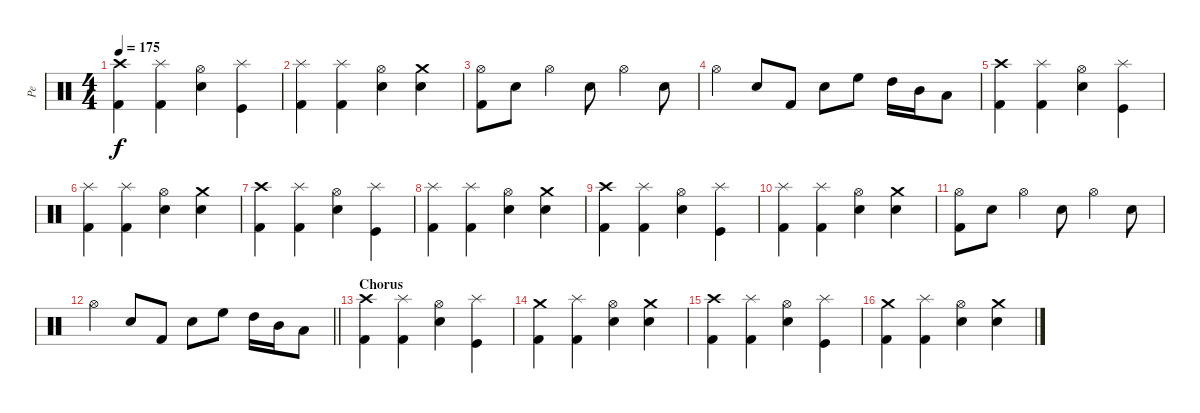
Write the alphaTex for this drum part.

\track ("Pe" "Pe") {instrument percussion}
\staff {score}
\articulation defaults
\ts (4 4)
\tempo 175
\clef neutral
\ks c
("Kick (hit) 2" "Crash high (hit)").4{dy f} ("Kick (hit) 2" "Splash (hit)").4 ("Electric Snare (hit)" "Hi-Hat (open)").4 ("Kick (hit)" "Splash (hit)").4 |
("Kick (hit) 2" "Splash (hit)").4 ("Kick (hit) 2" "Splash (hit)").4 ("Electric Snare (hit)" "Hi-Hat (open)").4 ("Electric Snare (hit)" "Crash medium (hit)").4 |
("Kick (hit) 2" "Hi-Hat (open)").8 "Electric Snare (hit)".8 "Hi-Hat (open)".4 "Electric Snare (hit)".8 "Hi-Hat (open)".4 "Electric Snare (hit)".8 |
"Hi-Hat (open)".4 "Electric Snare (hit)".8 "Kick (hit) 2".8 "Electric Snare (hit)".8 "High Floor Tom (hit)".8 "High Tom (hit)".16 "Mid Tom (hit)".16 "Low Tom (hit)".8 |
("Kick (hit) 2" "Crash high (hit)").4 ("Kick (hit) 2" "Splash (hit)").4 ("Electric Snare (hit)" "Hi-Hat (open)").4 ("Kick (hit)" "Splash (hit)").4 |
("Kick (hit) 2" "Splash (hit)").4 ("Kick (hit) 2" "Splash (hit)").4 ("Electric Snare (hit)" "Hi-Hat (open)").4 ("Electric Snare (hit)" "Crash medium (hit)").4 |
("Kick (hit) 2" "Crash high (hit)").4 ("Kick (hit) 2" "Splash (hit)").4 ("Electric Snare (hit)" "Hi-Hat (open)").4 ("Kick (hit)" "Splash (hit)").4 |
("Kick (hit) 2" "Splash (hit)").4 ("Kick (hit) 2" "Splash (hit)").4 ("Electric Snare (hit)" "Hi-Hat (open)").4 ("Electric Snare (hit)" "Crash medium (hit)").4 |
("Kick (hit) 2" "Crash high (hit)").4 ("Kick (hit) 2" "Splash (hit)").4 ("Electric Snare (hit)" "Hi-Hat (open)").4 ("Kick (hit)" "Splash (hit)").4 |
("Kick (hit) 2" "Splash (hit)").4 ("Kick (hit) 2" "Splash (hit)").4 ("Electric Snare (hit)" "Hi-Hat (open)").4 ("Electric Snare (hit)" "Crash medium (hit)").4 |
("Kick (hit) 2" "Hi-Hat (open)").8 "Electric Snare (hit)".8 "Hi-Hat (open)".4 "Electric Snare (hit)".8 "Hi-Hat (open)".4 "Electric Snare (hit)".8 |
\barLineRight lightlight "Hi-Hat (open)".4 "Electric Snare (hit)".8 "Kick (hit) 2".8 "Electric Snare (hit)".8 "High Floor Tom (hit)".8 "High Tom (hit)".16 "Mid Tom (hit)".16 "Low Tom (hit)".8
|
\section ("" "Chorus")
("Kick (hit) 2" "Crash high (hit)").4 ("Kick (hit) 2" "Splash (hit)").4 ("Electric Snare (hit)" "Hi-Hat (open)").4 ("Kick (hit)" "Splash (hit)").4 |
("Kick (hit) 2" "Crash medium (hit)").4 ("Kick (hit) 2" "Splash (hit)").4 ("Electric Snare (hit)" "Hi-Hat (open)").4 ("Electric Snare (hit)" "Crash medium (hit)").4 |
("Kick (hit) 2" "Crash high (hit)").4 ("Kick (hit) 2" "Splash (hit)").4 ("Electric Snare (hit)" "Hi-Hat (open)").4 ("Kick (hit)" "Splash (hit)").4 |
("Kick (hit) 2" "Crash medium (hit)").4 ("Kick (hit) 2" "Splash (hit)").4 ("Electric Snare (hit)" "Hi-Hat (open)").4 ("Electric Snare (hit)" "Crash medium (hit)").4
